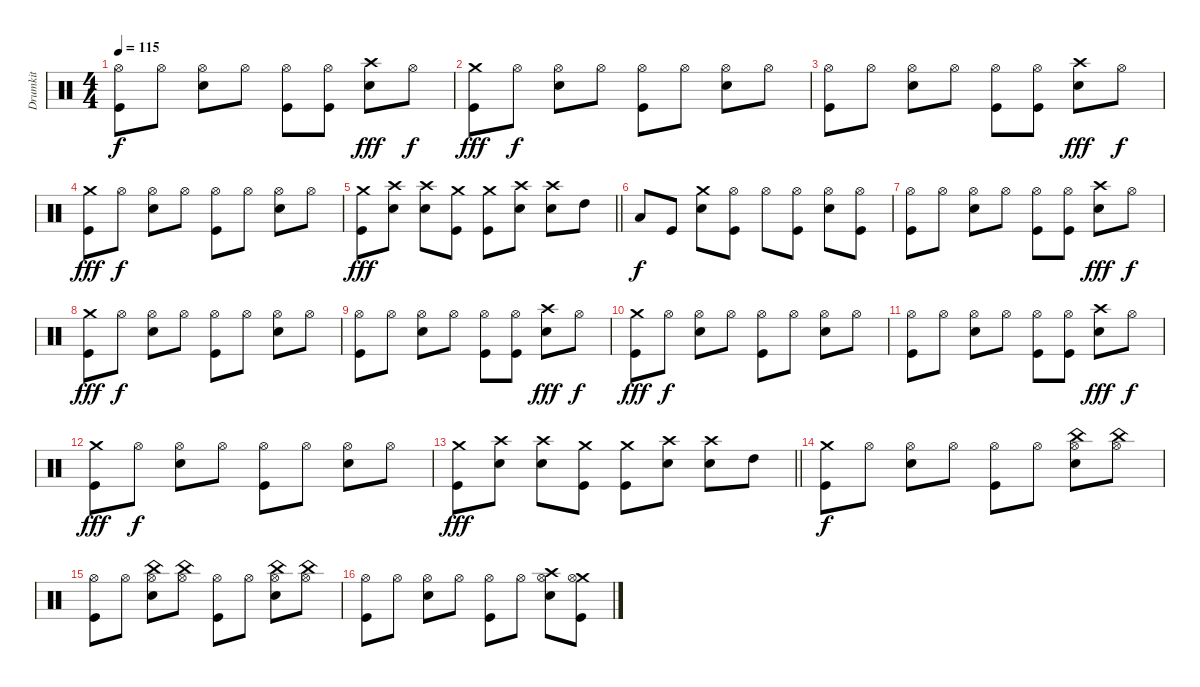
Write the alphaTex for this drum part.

\track ("Drumkit" "Drumkit") {instrument percussion}
\staff {score}
\articulation defaults
\ts (4 4)
\tempo 115
\clef neutral
\ks c
("Hi-Hat (open)" "Kick (hit)").8{dy f} "Hi-Hat (open)".8 ("Hi-Hat (open)" "Snare (hit) 2").8 "Hi-Hat (open)".8 ("Hi-Hat (open)" "Kick (hit)").8 ("Hi-Hat (open)" "Kick (hit)").8 ("Crash high (hit)" "Snare (hit) 2").8{dy fff} "Hi-Hat (open)".8{dy f} |
("Crash medium (hit)" "Kick (hit)").8{dy fff} "Hi-Hat (open)".8{dy f} ("Hi-Hat (open)" "Snare (hit) 2").8 "Hi-Hat (open)".8 ("Hi-Hat (open)" "Kick (hit)").8 "Hi-Hat (open)".8 ("Hi-Hat (open)" "Snare (hit) 2").8 "Hi-Hat (open)".8 |
("Hi-Hat (open)" "Kick (hit)").8 "Hi-Hat (open)".8 ("Hi-Hat (open)" "Snare (hit) 2").8 "Hi-Hat (open)".8 ("Hi-Hat (open)" "Kick (hit)").8 ("Hi-Hat (open)" "Kick (hit)").8 ("Crash high (hit)" "Snare (hit) 2").8{dy fff} "Hi-Hat (open)".8{dy f} |
("Crash medium (hit)" "Kick (hit)").8{dy fff} "Hi-Hat (open)".8{dy f} ("Hi-Hat (open)" "Snare (hit) 2").8 "Hi-Hat (open)".8 ("Hi-Hat (open)" "Kick (hit)").8 "Hi-Hat (open)".8 ("Hi-Hat (open)" "Snare (hit) 2").8 "Hi-Hat (open)".8 |
\barLineRight lightlight
("Crash medium (hit)" "Kick (hit)").8{dy fff} ("Crash high (hit)" "Snare (hit) 2").8 ("Crash high (hit)" "Snare (hit) 2").8 ("Crash medium (hit)" "Kick (hit)").8 ("Crash medium (hit)" "Kick (hit)").8 ("Crash high (hit)" "Snare (hit) 2").8 ("Crash high (hit)" "Snare (hit) 2").8 "High Tom (hit)".8 |
"Low Tom (hit)".8{dy f} "Kick (hit)".8 ("Crash medium (hit)" "Snare (hit) 2").8 ("Hi-Hat (open)" "Kick (hit)").8 "Hi-Hat (open)".8 ("Hi-Hat (open)" "Kick (hit)").8 ("Hi-Hat (open)" "Snare (hit) 2").8 ("Hi-Hat (open)" "Kick (hit)").8 |
("Hi-Hat (open)" "Kick (hit)").8 "Hi-Hat (open)".8 ("Hi-Hat (open)" "Snare (hit) 2").8 "Hi-Hat (open)".8 ("Hi-Hat (open)" "Kick (hit)").8 ("Hi-Hat (open)" "Kick (hit)").8 ("Crash high (hit)" "Snare (hit) 2").8{dy fff} "Hi-Hat (open)".8{dy f} |
("Crash medium (hit)" "Kick (hit)").8{dy fff} "Hi-Hat (open)".8{dy f} ("Hi-Hat (open)" "Snare (hit) 2").8 "Hi-Hat (open)".8 ("Hi-Hat (open)" "Kick (hit)").8 "Hi-Hat (open)".8 ("Hi-Hat (open)" "Snare (hit) 2").8 "Hi-Hat (open)".8 |
("Hi-Hat (open)" "Kick (hit)").8 "Hi-Hat (open)".8 ("Hi-Hat (open)" "Snare (hit) 2").8 "Hi-Hat (open)".8 ("Hi-Hat (open)" "Kick (hit)").8 ("Hi-Hat (open)" "Kick (hit)").8 ("Crash high (hit)" "Snare (hit) 2").8{dy fff} "Hi-Hat (open)".8{dy f} |
("Crash medium (hit)" "Kick (hit)").8{dy fff} "Hi-Hat (open)".8{dy f} ("Hi-Hat (open)" "Snare (hit) 2").8 "Hi-Hat (open)".8 ("Hi-Hat (open)" "Kick (hit)").8 "Hi-Hat (open)".8 ("Hi-Hat (open)" "Snare (hit) 2").8 "Hi-Hat (open)".8 |
("Hi-Hat (open)" "Kick (hit)").8 "Hi-Hat (open)".8 ("Hi-Hat (open)" "Snare (hit) 2").8 "Hi-Hat (open)".8 ("Hi-Hat (open)" "Kick (hit)").8 ("Hi-Hat (open)" "Kick (hit)").8 ("Crash high (hit)" "Snare (hit) 2").8{dy fff} "Hi-Hat (open)".8{dy f} |
("Crash medium (hit)" "Kick (hit)").8{dy fff} "Hi-Hat (open)".8{dy f} ("Hi-Hat (open)" "Snare (hit) 2").8 "Hi-Hat (open)".8 ("Hi-Hat (open)" "Kick (hit)").8 "Hi-Hat (open)".8 ("Hi-Hat (open)" "Snare (hit) 2").8 "Hi-Hat (open)".8 |
\barLineRight lightlight
("Crash medium (hit)" "Kick (hit)").8{dy fff} ("Crash high (hit)" "Snare (hit) 2").8 ("Crash high (hit)" "Snare (hit) 2").8 ("Crash medium (hit)" "Kick (hit)").8 ("Crash medium (hit)" "Kick (hit)").8 ("Crash high (hit)" "Snare (hit) 2").8 ("Crash high (hit)" "Snare (hit) 2").8 "High Tom (hit)".8 |
("Crash medium (hit)" "Kick (hit)").8{dy f} "Hi-Hat (open)".8 ("Hi-Hat (open)" "Snare (hit) 2").8 "Hi-Hat (open)".8 ("Hi-Hat (open)" "Kick (hit)").8 "Hi-Hat (open)".8 ("Hi-Hat (open)" "Snare (hit) 2" "China (hit)").8 ("Hi-Hat (open)" "China (hit)").8 |
("Hi-Hat (open)" "Kick (hit)").8 "Hi-Hat (open)".8 ("Hi-Hat (open)" "Snare (hit) 2" "China (hit)").8 ("Hi-Hat (open)" "China (hit)").8 ("Hi-Hat (open)" "Kick (hit)").8 "Hi-Hat (open)".8 ("Hi-Hat (open)" "Snare (hit) 2" "China (hit)").8 ("Hi-Hat (open)" "China (hit)").8 |
("Hi-Hat (open)" "Kick (hit)").8 "Hi-Hat (open)".8 ("Hi-Hat (open)" "Snare (hit) 2").8 "Hi-Hat (open)".8 ("Hi-Hat (open)" "Kick (hit)").8 "Hi-Hat (open)".8 ("Crash high (hit)" "Hi-Hat (open)" "Snare (hit) 2").8 ("Crash medium (hit)" "Hi-Hat (open)" "Kick (hit)").8
